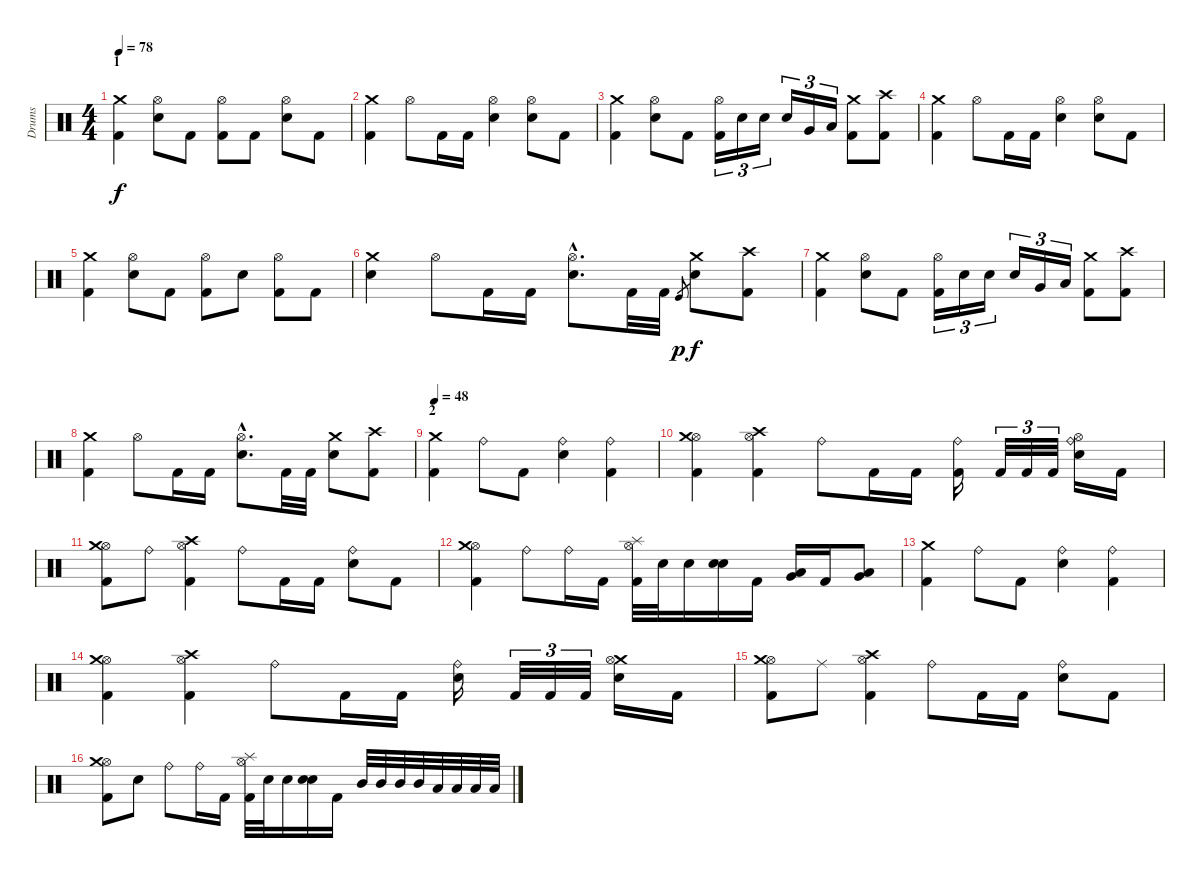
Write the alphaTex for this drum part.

\track ("Drums" "Drums") {instrument percussion}
\staff {score}
\articulation defaults
\ts (4 4)
\section ("" "1")
\tempo 78
\clef neutral
\ks c
("Crash medium (hit)" "Kick (hit) 2").4{dy f} ("Hi-Hat (open)" "Electric Snare (hit)").8 "Kick (hit) 2".8 ("Hi-Hat (open)" "Kick (hit) 2").8 "Kick (hit) 2".8 ("Hi-Hat (open)" "Electric Snare (hit)").8 "Kick (hit) 2".8 |
("Crash medium (hit)" "Kick (hit) 2").4 "Hi-Hat (open)".8 "Kick (hit) 2".16 "Kick (hit) 2".16 ("Hi-Hat (open)" "Electric Snare (hit)").4 ("Hi-Hat (open)" "Electric Snare (hit)").8 "Kick (hit) 2".8 |
("Crash medium (hit)" "Kick (hit) 2").4 ("Hi-Hat (open)" "Electric Snare (hit)").8 "Kick (hit) 2".8 ("Hi-Hat (open)" "Kick (hit) 2").16{tu (3 2)} "Electric Snare (hit)".16{tu (3 2)} "Electric Snare (hit)".16{tu (3 2)} "Electric Snare (hit)".16{tu (3 2)} "Very Low Tom (hit)".16{tu (3 2)} "Low Floor Tom (hit)".16{tu (3 2)} ("Crash medium (hit)" "Kick (hit) 2").8 ("Crash high (hit)" "Kick (hit) 2").8 |
("Crash medium (hit)" "Kick (hit) 2").4 "Hi-Hat (open)".8 "Kick (hit) 2".16 "Kick (hit) 2".16 ("Hi-Hat (open)" "Electric Snare (hit)").4 ("Hi-Hat (open)" "Electric Snare (hit)").8 "Kick (hit) 2".8 |
("Crash medium (hit)" "Kick (hit) 2").4 ("Hi-Hat (open)" "Electric Snare (hit)").8 "Kick (hit) 2".8 ("Hi-Hat (open)" "Kick (hit) 2").8 "Electric Snare (hit)".8 ("Hi-Hat (open)" "Kick (hit) 2").8 "Kick (hit) 2".8 |
("Crash medium (hit)" "Electric Snare (hit)").4 "Hi-Hat (open)".8 "Kick (hit) 2".16 "Kick (hit) 2".16 ("Hi-Hat (open)"{hac} "Electric Snare (hit)"{hac}).8{d} "Kick (hit) 2".32 "Kick (hit) 2".32 "Kick (hit)".8{gr dy p} ("Crash medium (hit)" "Electric Snare (hit)").8{dy f} ("Crash high (hit)" "Kick (hit) 2").8 |
("Crash medium (hit)" "Kick (hit) 2").4 ("Hi-Hat (open)" "Electric Snare (hit)").8 "Kick (hit) 2".8 ("Hi-Hat (open)" "Kick (hit) 2").16{tu (3 2)} "Electric Snare (hit)".16{tu (3 2)} "Electric Snare (hit)".16{tu (3 2)} "Electric Snare (hit)".16{tu (3 2)} "Very Low Tom (hit)".16{tu (3 2)} "Low Floor Tom (hit)".16{tu (3 2)} ("Crash medium (hit)" "Kick (hit) 2").8 ("Crash high (hit)" "Kick (hit) 2").8 |
("Crash medium (hit)" "Kick (hit) 2").4 "Hi-Hat (open)".8 "Kick (hit) 2".16 "Kick (hit) 2".16 ("Hi-Hat (open)"{hac} "Electric Snare (hit)"{hac}).8{d} "Kick (hit) 2".32 "Kick (hit) 2".32 ("Crash medium (hit)" "Electric Snare (hit)").8 ("Crash high (hit)" "Kick (hit) 2").8 |
\section ("" "2")
\tempo 48
("Crash medium (hit)" "Kick (hit) 2").4 "Ride (bell)".8 "Kick (hit) 2".8 ("Ride (bell)" "Electric Snare (hit)").4 ("Ride (bell)" "Kick (hit) 2").4 |
("Hi-Hat (open)" "Crash medium (hit)" "Kick (hit) 2").4 ("Hi-Hat (open)" "Crash high (hit)" "Kick (hit) 2").4 "Ride (bell)".8 "Kick (hit) 2".16 "Kick (hit) 2".16 ("Ride (bell)" "Kick (hit) 2").16 "Kick (hit) 2".32{tu (3 2)} "Kick (hit) 2".32{tu (3 2)} "Kick (hit) 2".32{tu (3 2)} ("Ride (bell)" "Hi-Hat (open)" "Electric Snare (hit)").16 "Kick (hit) 2".16 |
("Hi-Hat (open)" "Crash medium (hit)" "Kick (hit) 2").8 "Ride (bell)".8 ("Hi-Hat (open)" "Crash high (hit)" "Kick (hit) 2").4 "Ride (bell)".8 "Kick (hit) 2".16 "Kick (hit) 2".16 ("Ride (bell)" "Electric Snare (hit)").8 "Kick (hit) 2".8 |
("Hi-Hat (open)" "Crash medium (hit)" "Kick (hit) 2").4 "Ride (bell)".8 "Ride (bell)".16 "Kick (hit) 2".16 ("Hi-Hat (open)" "Splash (hit)" "Kick (hit) 2").32 "Electric Snare (hit)".32 "Electric Snare (hit)".16 ("Electric Snare (hit)" "Electric Snare (hit)").16{bu 30} "Kick (hit) 2".16 ("Low Tom (hit)" "Very Low Tom (hit)").16 "Kick (hit) 2".16 ("Very Low Tom (hit)" "Low Floor Tom (hit)").8 |
("Crash medium (hit)" "Kick (hit) 2").4 "Ride (bell)".8 "Kick (hit) 2".8 ("Ride (bell)" "Electric Snare (hit)").4 ("Ride (bell)" "Kick (hit) 2").4 |
("Hi-Hat (open)" "Crash medium (hit)" "Kick (hit) 2").4 ("Hi-Hat (open)" "Crash high (hit)" "Kick (hit) 2").4 "Ride (bell)".8 "Kick (hit) 2".16 "Kick (hit) 2".16 ("Ride (bell)" "Electric Snare (hit)").16 "Kick (hit) 2".32{tu (3 2)} "Kick (hit) 2".32{tu (3 2)} "Kick (hit) 2".32{tu (3 2)} ("Crash medium (hit)" "Hi-Hat (open)" "Electric Snare (hit)").16 "Kick (hit) 2".16 |
("Hi-Hat (open)" "Crash medium (hit)" "Kick (hit) 2").8 "Ride (middle)".8 ("Hi-Hat (open)" "Crash high (hit)" "Kick (hit) 2").4 "Ride (bell)".8 "Kick (hit) 2".16 "Kick (hit) 2".16 ("Ride (bell)" "Electric Snare (hit)").8 "Kick (hit) 2".8 |
("Hi-Hat (open)" "Crash medium (hit)" "Kick (hit) 2").8 "Electric Snare (hit)".8 "Ride (bell)".8 "Ride (bell)".16 "Kick (hit) 2".16 ("Hi-Hat (open)" "Splash (hit)" "Kick (hit) 2").32 "Electric Snare (hit)".32 "Electric Snare (hit)".16 ("Electric Snare (hit)" "Electric Snare (hit)").16{bu 30} "Kick (hit) 2".16 "Mid Tom (hit)".32 "Mid Tom (hit)".32 "Mid Tom (hit)".32 "Mid Tom (hit)".32 "Low Tom (hit)".32 "Low Tom (hit)".32 "Low Tom (hit)".32 "Low Tom (hit)".32
